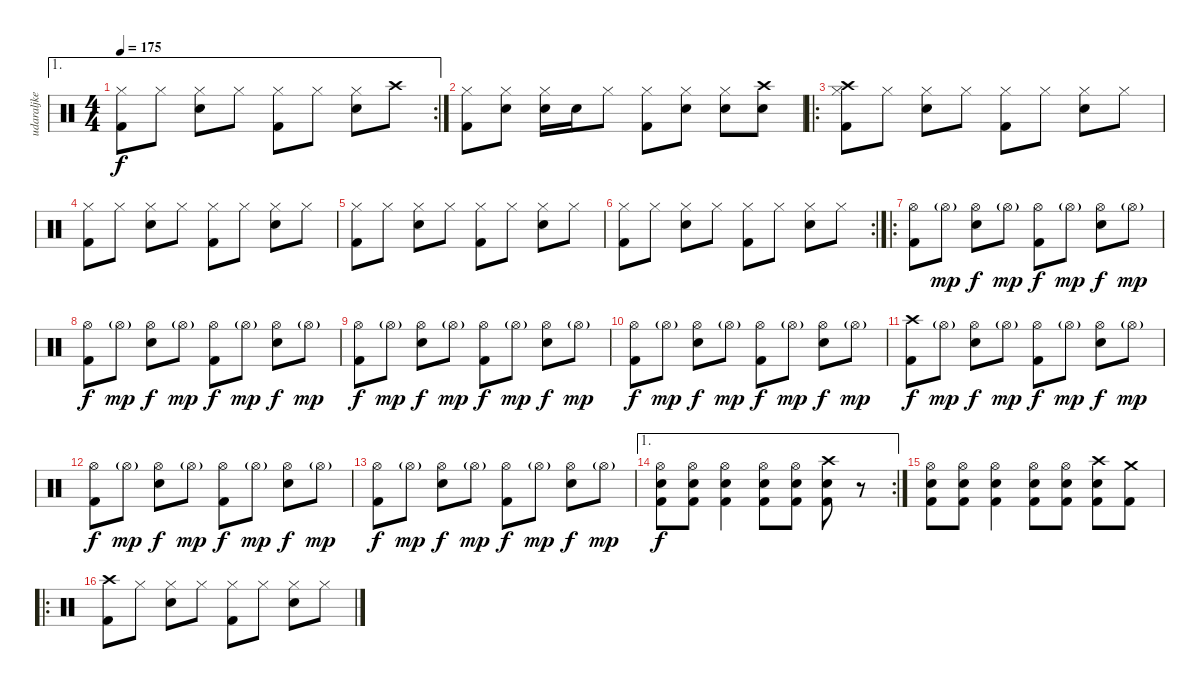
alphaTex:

\track ("udaraljke" "udaraljke") {instrument percussion}
\staff {score}
\articulation defaults
\ae 1
\rc 2
\ts (4 4)
\tempo 175
\clef neutral
\ks c
("Hi-Hat (closed)" "Kick (hit) 2").8{dy f} "Hi-Hat (closed)".8 ("Hi-Hat (closed)" "Snare (hit) 2").8 "Hi-Hat (closed)".8 ("Hi-Hat (closed)" "Kick (hit) 2").8 "Hi-Hat (closed)".8 ("Hi-Hat (closed)" "Snare (hit) 2").8 "Crash high (hit)".8 |
("Hi-Hat (closed)" "Kick (hit) 2").8 ("Hi-Hat (closed)" "Snare (hit) 2").8 ("Hi-Hat (closed)" "Snare (hit) 2").16 "Snare (hit) 2".16 "Hi-Hat (closed)".8 ("Hi-Hat (closed)" "Kick (hit) 2").8 ("Hi-Hat (closed)" "Snare (hit) 2").8 ("Hi-Hat (closed)" "Snare (hit) 2").8 ("Crash high (hit)" "Snare (hit) 2").8 |
\ro
("Hi-Hat (closed)" "Crash high (hit)" "Kick (hit) 2").8 "Hi-Hat (closed)".8 ("Hi-Hat (closed)" "Snare (hit) 2").8 "Hi-Hat (closed)".8 ("Hi-Hat (closed)" "Kick (hit) 2").8 "Hi-Hat (closed)".8 ("Hi-Hat (closed)" "Snare (hit) 2").8 "Hi-Hat (closed)".8 |
("Hi-Hat (closed)" "Kick (hit) 2").8 "Hi-Hat (closed)".8 ("Hi-Hat (closed)" "Snare (hit) 2").8 "Hi-Hat (closed)".8 ("Hi-Hat (closed)" "Kick (hit) 2").8 "Hi-Hat (closed)".8 ("Hi-Hat (closed)" "Snare (hit) 2").8 "Hi-Hat (closed)".8 |
("Hi-Hat (closed)" "Kick (hit) 2").8 "Hi-Hat (closed)".8 ("Hi-Hat (closed)" "Snare (hit) 2").8 "Hi-Hat (closed)".8 ("Hi-Hat (closed)" "Kick (hit) 2").8 "Hi-Hat (closed)".8 ("Hi-Hat (closed)" "Snare (hit) 2").8 "Hi-Hat (closed)".8 |
\rc 2
("Hi-Hat (closed)" "Kick (hit) 2").8 "Hi-Hat (closed)".8 ("Hi-Hat (closed)" "Snare (hit) 2").8 "Hi-Hat (closed)".8 ("Hi-Hat (closed)" "Kick (hit) 2").8 "Hi-Hat (closed)".8 ("Hi-Hat (closed)" "Snare (hit) 2").8 "Hi-Hat (closed)".8 |
\ro
("Hi-Hat (open)" "Kick (hit) 2").8 "Hi-Hat (open)"{g}.8{dy mp} ("Hi-Hat (open)" "Snare (hit) 2").8{dy f} "Hi-Hat (open)"{g}.8{dy mp} ("Hi-Hat (open)" "Kick (hit) 2").8{dy f} "Hi-Hat (open)"{g}.8{dy mp} ("Hi-Hat (open)" "Snare (hit) 2").8{dy f} "Hi-Hat (open)"{g}.8{dy mp} |
("Hi-Hat (open)" "Kick (hit) 2").8{dy f} "Hi-Hat (open)"{g}.8{dy mp} ("Hi-Hat (open)" "Snare (hit) 2").8{dy f} "Hi-Hat (open)"{g}.8{dy mp} ("Hi-Hat (open)" "Kick (hit) 2").8{dy f} "Hi-Hat (open)"{g}.8{dy mp} ("Hi-Hat (open)" "Snare (hit) 2").8{dy f} "Hi-Hat (open)"{g}.8{dy mp} |
("Hi-Hat (open)" "Kick (hit) 2").8{dy f} "Hi-Hat (open)"{g}.8{dy mp} ("Hi-Hat (open)" "Snare (hit) 2").8{dy f} "Hi-Hat (open)"{g}.8{dy mp} ("Hi-Hat (open)" "Kick (hit) 2").8{dy f} "Hi-Hat (open)"{g}.8{dy mp} ("Hi-Hat (open)" "Snare (hit) 2").8{dy f} "Hi-Hat (open)"{g}.8{dy mp} |
("Hi-Hat (open)" "Kick (hit) 2").8{dy f} "Hi-Hat (open)"{g}.8{dy mp} ("Hi-Hat (open)" "Snare (hit) 2").8{dy f} "Hi-Hat (open)"{g}.8{dy mp} ("Hi-Hat (open)" "Kick (hit) 2").8{dy f} "Hi-Hat (open)"{g}.8{dy mp} ("Hi-Hat (open)" "Snare (hit) 2").8{dy f} "Hi-Hat (open)"{g}.8{dy mp} |
("Crash high (hit)" "Kick (hit) 2").8{dy f} "Hi-Hat (open)"{g}.8{dy mp} ("Hi-Hat (open)" "Snare (hit) 2").8{dy f} "Hi-Hat (open)"{g}.8{dy mp} ("Hi-Hat (open)" "Kick (hit) 2").8{dy f} "Hi-Hat (open)"{g}.8{dy mp} ("Hi-Hat (open)" "Snare (hit) 2").8{dy f} "Hi-Hat (open)"{g}.8{dy mp} |
("Hi-Hat (open)" "Kick (hit) 2").8{dy f} "Hi-Hat (open)"{g}.8{dy mp} ("Hi-Hat (open)" "Snare (hit) 2").8{dy f} "Hi-Hat (open)"{g}.8{dy mp} ("Hi-Hat (open)" "Kick (hit) 2").8{dy f} "Hi-Hat (open)"{g}.8{dy mp} ("Hi-Hat (open)" "Snare (hit) 2").8{dy f} "Hi-Hat (open)"{g}.8{dy mp} |
("Hi-Hat (open)" "Kick (hit) 2").8{dy f} "Hi-Hat (open)"{g}.8{dy mp} ("Hi-Hat (open)" "Snare (hit) 2").8{dy f} "Hi-Hat (open)"{g}.8{dy mp} ("Hi-Hat (open)" "Kick (hit) 2").8{dy f} "Hi-Hat (open)"{g}.8{dy mp} ("Hi-Hat (open)" "Snare (hit) 2").8{dy f} "Hi-Hat (open)"{g}.8{dy mp} |
\ae 1
\rc 2
("Hi-Hat (open)" "Snare (hit) 2" "Kick (hit) 2").8{dy f} ("Hi-Hat (open)" "Snare (hit) 2" "Kick (hit) 2").8 ("Hi-Hat (open)" "Snare (hit) 2" "Kick (hit) 2").4 ("Hi-Hat (open)" "Snare (hit) 2" "Kick (hit) 2").8 ("Hi-Hat (open)" "Snare (hit) 2" "Kick (hit) 2").8 ("Crash high (hit)" "Snare (hit) 2" "Kick (hit) 2").8 r.8 |
("Hi-Hat (open)" "Snare (hit) 2" "Kick (hit) 2").8 ("Hi-Hat (open)" "Snare (hit) 2" "Kick (hit) 2").8 ("Hi-Hat (open)" "Snare (hit) 2" "Kick (hit) 2").4 ("Hi-Hat (open)" "Snare (hit) 2" "Kick (hit) 2").8 ("Hi-Hat (open)" "Snare (hit) 2" "Kick (hit) 2").8 ("Crash high (hit)" "Snare (hit) 2" "Kick (hit) 2").8 ("Crash medium (hit)" "Kick (hit) 2").8 |
\ro
("Crash high (hit)" "Kick (hit) 2").8 "Hi-Hat (closed)".8 ("Hi-Hat (closed)" "Snare (hit) 2").8 "Hi-Hat (closed)".8 ("Hi-Hat (closed)" "Kick (hit) 2").8 "Hi-Hat (closed)".8 ("Hi-Hat (closed)" "Snare (hit) 2").8 "Hi-Hat (closed)".8
